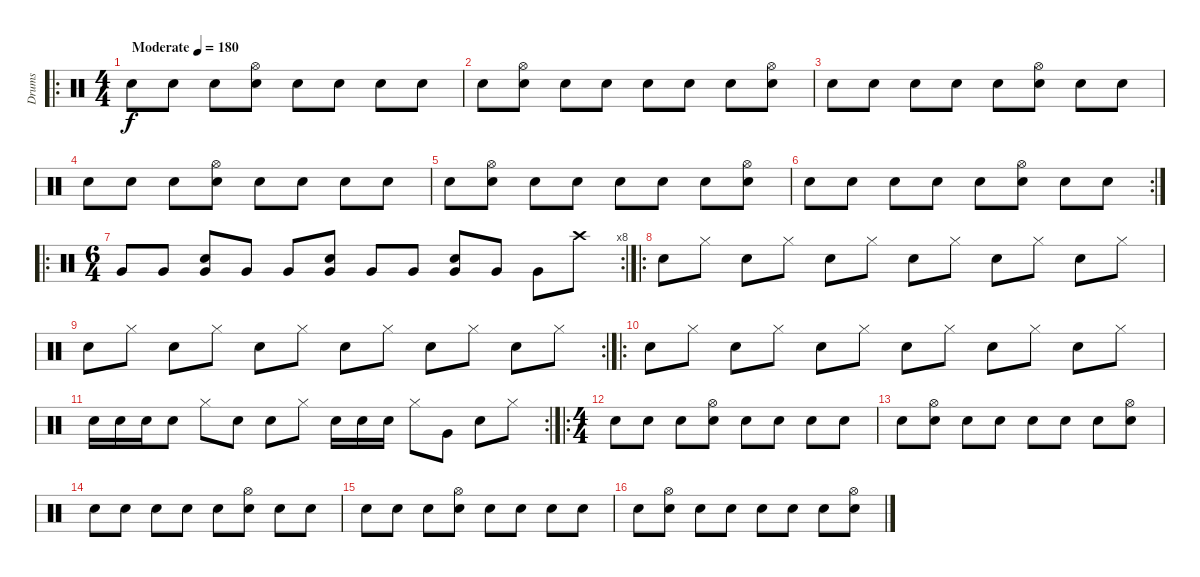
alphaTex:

\track ("Drums" "Drums") {instrument percussion}
\staff {score}
\articulation defaults
\ro
\ts (4 4)
\tempo (180 "Moderate")
\clef neutral
\ks c "Electric Snare (hit)".8{dy f} "Electric Snare (hit)".8 "Electric Snare (hit)".8
("Hi-Hat (open)" "Electric Snare (hit)").8 "Electric Snare (hit)".8 "Electric Snare (hit)".8 "Electric Snare (hit)".8 "Electric Snare (hit)".8 |
"Electric Snare (hit)".8 ("Hi-Hat (open)" "Electric Snare (hit)").8 "Electric Snare (hit)".8 "Electric Snare (hit)".8 "Electric Snare (hit)".8 "Electric Snare (hit)".8 "Electric Snare (hit)".8 ("Hi-Hat (open)" "Electric Snare (hit)").8 |
"Electric Snare (hit)".8 "Electric Snare (hit)".8 "Electric Snare (hit)".8 "Electric Snare (hit)".8 "Electric Snare (hit)".8 ("Hi-Hat (open)" "Electric Snare (hit)").8 "Electric Snare (hit)".8 "Electric Snare (hit)".8 |
"Electric Snare (hit)".8 "Electric Snare (hit)".8 "Electric Snare (hit)".8 ("Hi-Hat (open)" "Electric Snare (hit)").8 "Electric Snare (hit)".8 "Electric Snare (hit)".8 "Electric Snare (hit)".8 "Electric Snare (hit)".8 |
"Electric Snare (hit)".8 ("Hi-Hat (open)" "Electric Snare (hit)").8 "Electric Snare (hit)".8 "Electric Snare (hit)".8 "Electric Snare (hit)".8 "Electric Snare (hit)".8 "Electric Snare (hit)".8 ("Hi-Hat (open)" "Electric Snare (hit)").8 |
\rc 2 "Electric Snare (hit)".8 "Electric Snare (hit)".8 "Electric Snare (hit)".8 "Electric Snare (hit)".8 "Electric Snare (hit)".8
("Hi-Hat (open)" "Electric Snare (hit)").8 "Electric Snare (hit)".8 "Electric Snare (hit)".8 |
\ro
\rc 8
\ts (6 4)
"Very Low Tom (hit)".8 "Very Low Tom (hit)".8 ("Electric Snare (hit)" "Very Low Tom (hit)").8 "Very Low Tom (hit)".8 "Very Low Tom (hit)".8 ("Electric Snare (hit)" "Very Low Tom (hit)").8 "Very Low Tom (hit)".8 "Very Low Tom (hit)".8 ("Electric Snare (hit)" "Very Low Tom (hit)").8 "Very Low Tom (hit)".8 "Very Low Tom (hit)".8 "Crash high (hit)".8 |
\ro "Electric Snare (hit)".8 "Hi-Hat (closed)".8 "Electric Snare (hit)".8 "Hi-Hat (closed)".8 "Electric Snare (hit)".8 "Hi-Hat (closed)".8 "Electric Snare (hit)".8 "Hi-Hat (closed)".8 "Electric Snare (hit)".8 "Hi-Hat (closed)".8 "Electric Snare (hit)".8 "Hi-Hat (closed)".8
|
\rc 2 "Electric Snare (hit)".8 "Hi-Hat (closed)".8 "Electric Snare (hit)".8 "Hi-Hat (closed)".8 "Electric Snare (hit)".8 "Hi-Hat (closed)".8 "Electric Snare (hit)".8 "Hi-Hat (closed)".8 "Electric Snare (hit)".8 "Hi-Hat (closed)".8 "Electric Snare (hit)".8 "Hi-Hat (closed)".8
|
\ro "Electric Snare (hit)".8 "Hi-Hat (closed)".8 "Electric Snare (hit)".8 "Hi-Hat (closed)".8 "Electric Snare (hit)".8 "Hi-Hat (closed)".8 "Electric Snare (hit)".8 "Hi-Hat (closed)".8 "Electric Snare (hit)".8 "Hi-Hat (closed)".8 "Electric Snare (hit)".8 "Hi-Hat (closed)".8
|
\rc 2 "Electric Snare (hit)".16 "Electric Snare (hit)".16 "Electric Snare (hit)".16 "Electric Snare (hit)".8 "Hi-Hat (closed)".8 "Electric Snare (hit)".8 "Electric Snare (hit)".8 "Hi-Hat (closed)".8 "Electric Snare (hit)".16 "Electric Snare (hit)".16 "Electric Snare (hit)".16 "Hi-Hat (closed)".8 "Very Low Tom (hit)".8 "Electric Snare (hit)".8 "Hi-Hat (closed)".8
|
\ro
\ts (4 4)
"Electric Snare (hit)".8 "Electric Snare (hit)".8 "Electric Snare (hit)".8 ("Hi-Hat (open)" "Electric Snare (hit)").8 "Electric Snare (hit)".8 "Electric Snare (hit)".8 "Electric Snare (hit)".8 "Electric Snare (hit)".8 |
"Electric Snare (hit)".8 ("Hi-Hat (open)" "Electric Snare (hit)").8 "Electric Snare (hit)".8 "Electric Snare (hit)".8 "Electric Snare (hit)".8 "Electric Snare (hit)".8 "Electric Snare (hit)".8 ("Hi-Hat (open)" "Electric Snare (hit)").8 |
"Electric Snare (hit)".8 "Electric Snare (hit)".8 "Electric Snare (hit)".8 "Electric Snare (hit)".8 "Electric Snare (hit)".8 ("Hi-Hat (open)" "Electric Snare (hit)").8 "Electric Snare (hit)".8 "Electric Snare (hit)".8 |
"Electric Snare (hit)".8 "Electric Snare (hit)".8 "Electric Snare (hit)".8 ("Hi-Hat (open)" "Electric Snare (hit)").8 "Electric Snare (hit)".8 "Electric Snare (hit)".8 "Electric Snare (hit)".8 "Electric Snare (hit)".8 |
"Electric Snare (hit)".8 ("Hi-Hat (open)" "Electric Snare (hit)").8 "Electric Snare (hit)".8 "Electric Snare (hit)".8 "Electric Snare (hit)".8 "Electric Snare (hit)".8 "Electric Snare (hit)".8 ("Hi-Hat (open)" "Electric Snare (hit)").8
